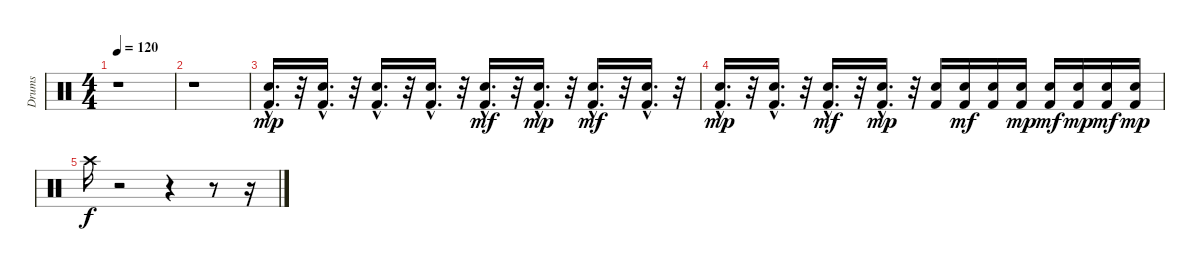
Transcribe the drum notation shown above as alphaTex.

\track ("Drums" "Drums") {instrument percussion}
\staff {score}
\articulation defaults
\ts (4 4)
\tempo 120
\clef neutral
\ks c
r.1{dy mf} |
r.1 |
("Kick (hit) 2"{hac} "Snare (hit) 2"{hac}).16{d dy mp} r.32 ("Kick (hit) 2"{hac} "Snare (hit) 2"{hac}).16{d} r.32 ("Kick (hit) 2"{hac} "Snare (hit) 2"{hac}).16{d} r.32 ("Kick (hit) 2"{hac} "Snare (hit) 2"{hac}).16{d} r.32 ("Kick (hit) 2"{hac} "Snare (hit) 2"{hac}).16{d dy mf} r.32 ("Kick (hit) 2"{hac} "Snare (hit) 2"{hac}).16{d dy mp} r.32 ("Kick (hit) 2"{hac} "Snare (hit) 2"{hac}).16{d dy mf} r.32 ("Kick (hit) 2"{hac} "Snare (hit) 2"{hac}).16{d} r.32 |
("Kick (hit) 2"{hac} "Snare (hit) 2"{hac}).16{d dy mp} r.32 ("Kick (hit) 2"{hac} "Snare (hit) 2"{hac}).16{d} r.32 ("Kick (hit) 2"{hac} "Snare (hit) 2"{hac}).16{d dy mf} r.32 ("Kick (hit) 2"{hac} "Snare (hit) 2"{hac}).16{d dy mp} r.32 ("Kick (hit) 2" "Snare (hit) 2").16 ("Kick (hit) 2" "Snare (hit) 2").16{dy mf} ("Kick (hit) 2" "Snare (hit) 2").16 ("Kick (hit) 2" "Snare (hit) 2").16{dy mp} ("Kick (hit) 2" "Snare (hit) 2").16{dy mf} ("Kick (hit) 2" "Snare (hit) 2").16{dy mp} ("Kick (hit) 2" "Snare (hit) 2").16{dy mf} ("Kick (hit) 2" "Snare (hit) 2").16{dy mp} |
"Crash high (hit)".16{dy f} r.2 r.4 r.8 r.16
